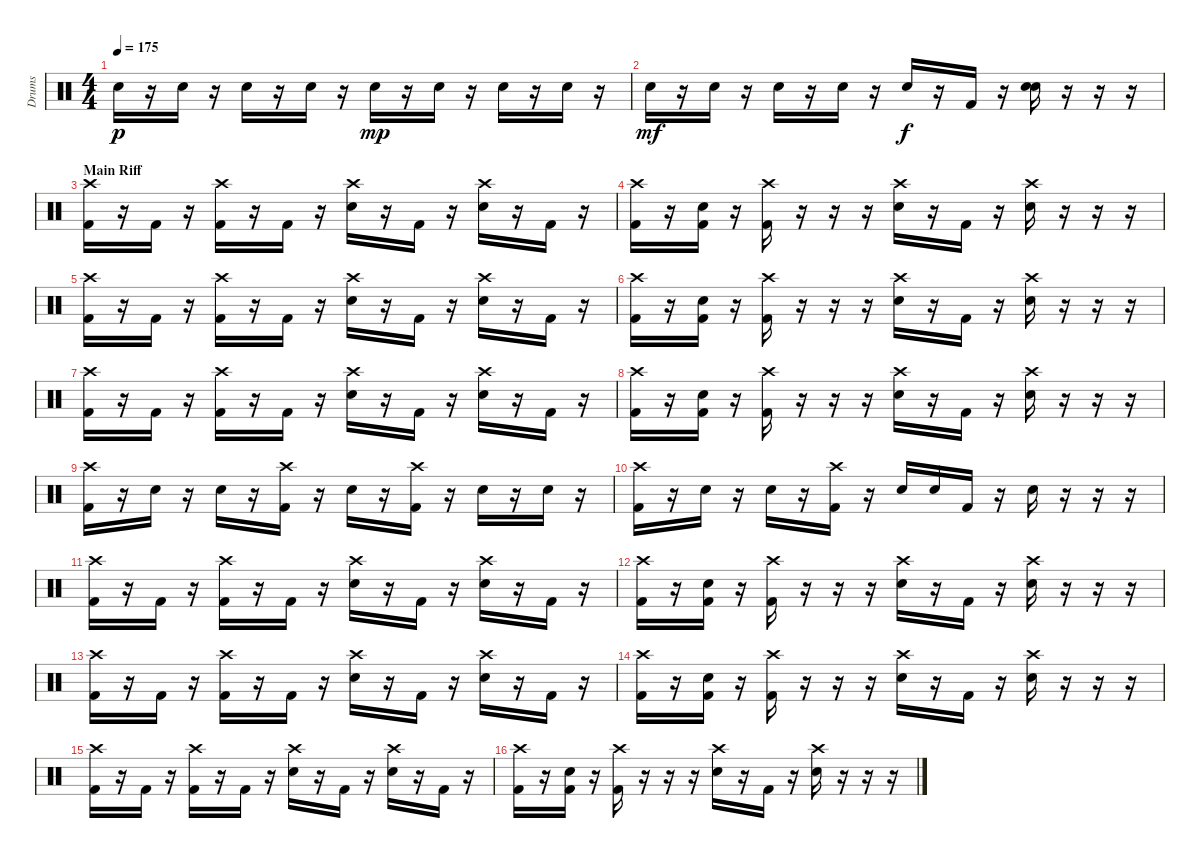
\track ("Drums" "Drums") {instrument percussion}
\staff {score}
\articulation defaults
\ts (4 4)
\tempo 175
\clef neutral
\ks c "Snare (hit) 2".16{dy p}
r.16 "Snare (hit) 2".16 r.16 "Snare (hit) 2".16 r.16 "Snare (hit) 2".16 r.16 "Snare (hit) 2".16{dy mp} r.16 "Snare (hit) 2".16 r.16 "Snare (hit) 2".16 r.16 "Snare (hit) 2".16 r.16 |
"Snare (hit) 2".16{dy mf} r.16 "Snare (hit) 2".16 r.16 "Snare (hit) 2".16 r.16 "Snare (hit) 2".16 r.16 "Snare (hit) 2".16{dy f} r.16 "Kick (hit) 2".16 r.16 ("Snare (hit) 2" "Snare (hit) 2").16 r.16 r.16 r.16 |
\section ("" "Main Riff")
("Crash high (hit)" "Kick (hit) 2").16 r.16 "Kick (hit) 2".16 r.16 ("Crash high (hit)" "Kick (hit) 2").16 r.16 "Kick (hit) 2".16 r.16 ("Crash high (hit)" "Snare (hit) 2").16 r.16 "Kick (hit) 2".16 r.16 ("Crash high (hit)" "Snare (hit) 2").16 r.16 "Kick (hit) 2".16 r.16 |
("Crash high (hit)" "Kick (hit) 2").16 r.16 ("Snare (hit) 2" "Kick (hit) 2").16 r.16 ("Crash high (hit)" "Kick (hit) 2").16 r.16 r.16 r.16 ("Crash high (hit)" "Snare (hit) 2").16 r.16 "Kick (hit) 2".16 r.16 ("Crash high (hit)" "Snare (hit) 2").16 r.16 r.16 r.16 |
("Crash high (hit)" "Kick (hit) 2").16 r.16 "Kick (hit) 2".16 r.16 ("Crash high (hit)" "Kick (hit) 2").16 r.16 "Kick (hit) 2".16 r.16 ("Crash high (hit)" "Snare (hit) 2").16 r.16 "Kick (hit) 2".16 r.16 ("Crash high (hit)" "Snare (hit) 2").16 r.16 "Kick (hit) 2".16 r.16 |
("Crash high (hit)" "Kick (hit) 2").16 r.16 ("Snare (hit) 2" "Kick (hit) 2").16 r.16 ("Crash high (hit)" "Kick (hit) 2").16 r.16 r.16 r.16 ("Crash high (hit)" "Snare (hit) 2").16 r.16 "Kick (hit) 2".16 r.16 ("Crash high (hit)" "Snare (hit) 2").16 r.16 r.16 r.16 |
("Crash high (hit)" "Kick (hit) 2").16 r.16 "Kick (hit) 2".16 r.16 ("Crash high (hit)" "Kick (hit) 2").16 r.16 "Kick (hit) 2".16 r.16 ("Crash high (hit)" "Snare (hit) 2").16 r.16 "Kick (hit) 2".16 r.16 ("Crash high (hit)" "Snare (hit) 2").16 r.16 "Kick (hit) 2".16 r.16 |
("Crash high (hit)" "Kick (hit) 2").16 r.16 ("Snare (hit) 2" "Kick (hit) 2").16 r.16 ("Crash high (hit)" "Kick (hit) 2").16 r.16 r.16 r.16 ("Crash high (hit)" "Snare (hit) 2").16 r.16 "Kick (hit) 2".16 r.16 ("Crash high (hit)" "Snare (hit) 2").16 r.16 r.16 r.16 |
("Crash high (hit)" "Kick (hit) 2").16 r.16 "Snare (hit) 2".16 r.16 "Snare (hit) 2".16 r.16 ("Crash high (hit)" "Kick (hit) 2").16 r.16 "Snare (hit) 2".16 r.16 ("Crash high (hit)" "Kick (hit) 2").16 r.16 "Snare (hit) 2".16 r.16 "Snare (hit) 2".16 r.16 |
("Crash high (hit)" "Kick (hit) 2").16 r.16 "Snare (hit) 2".16 r.16 "Snare (hit) 2".16 r.16 ("Crash high (hit)" "Kick (hit) 2").16 r.16 "Snare (hit) 2".16 "Snare (hit) 2".16 "Kick (hit) 2".16 r.16 "Snare (hit) 2".16 r.16 r.16 r.16 |
("Crash high (hit)" "Kick (hit) 2").16 r.16 "Kick (hit) 2".16 r.16 ("Crash high (hit)" "Kick (hit) 2").16 r.16 "Kick (hit) 2".16 r.16 ("Crash high (hit)" "Snare (hit) 2").16 r.16 "Kick (hit) 2".16 r.16 ("Crash high (hit)" "Snare (hit) 2").16 r.16 "Kick (hit) 2".16 r.16 |
("Crash high (hit)" "Kick (hit) 2").16 r.16 ("Snare (hit) 2" "Kick (hit) 2").16 r.16 ("Crash high (hit)" "Kick (hit) 2").16 r.16 r.16 r.16 ("Crash high (hit)" "Snare (hit) 2").16 r.16 "Kick (hit) 2".16 r.16 ("Crash high (hit)" "Snare (hit) 2").16 r.16 r.16 r.16 |
("Crash high (hit)" "Kick (hit) 2").16 r.16 "Kick (hit) 2".16 r.16 ("Crash high (hit)" "Kick (hit) 2").16 r.16 "Kick (hit) 2".16 r.16 ("Crash high (hit)" "Snare (hit) 2").16 r.16 "Kick (hit) 2".16 r.16 ("Crash high (hit)" "Snare (hit) 2").16 r.16 "Kick (hit) 2".16 r.16 |
("Crash high (hit)" "Kick (hit) 2").16 r.16 ("Snare (hit) 2" "Kick (hit) 2").16 r.16 ("Crash high (hit)" "Kick (hit) 2").16 r.16 r.16 r.16 ("Crash high (hit)" "Snare (hit) 2").16 r.16 "Kick (hit) 2".16 r.16 ("Crash high (hit)" "Snare (hit) 2").16 r.16 r.16 r.16 |
("Crash high (hit)" "Kick (hit) 2").16 r.16 "Kick (hit) 2".16 r.16 ("Crash high (hit)" "Kick (hit) 2").16 r.16 "Kick (hit) 2".16 r.16 ("Crash high (hit)" "Snare (hit) 2").16 r.16 "Kick (hit) 2".16 r.16 ("Crash high (hit)" "Snare (hit) 2").16 r.16 "Kick (hit) 2".16 r.16 |
("Crash high (hit)" "Kick (hit) 2").16 r.16 ("Snare (hit) 2" "Kick (hit) 2").16 r.16 ("Crash high (hit)" "Kick (hit) 2").16 r.16 r.16 r.16 ("Crash high (hit)" "Snare (hit) 2").16 r.16 "Kick (hit) 2".16 r.16 ("Crash high (hit)" "Snare (hit) 2").16 r.16 r.16 r.16
